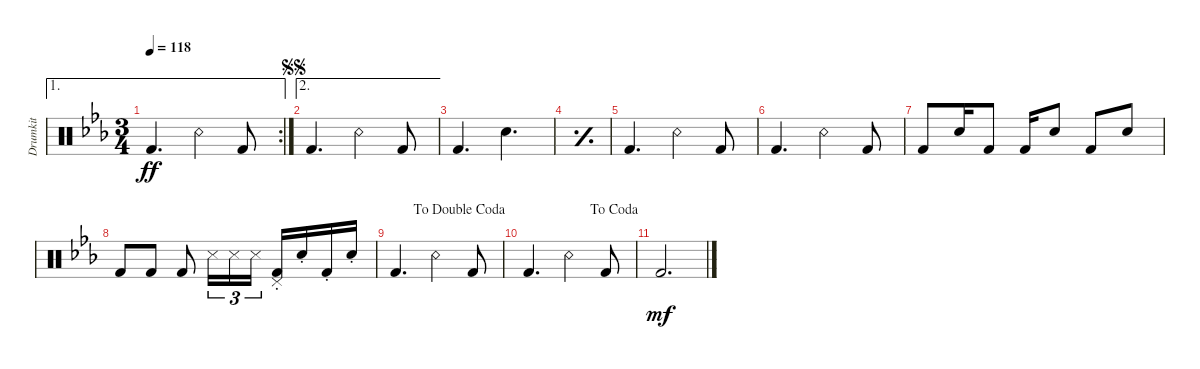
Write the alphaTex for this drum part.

\defaultSystemsLayout 4
\bracketExtendMode groupsimilarinstruments
\otherSystemsTrackNameOrientation horizontal
\track ("Drumkit" "Drumkit") {instrument percussion}
\staff {score}
\articulation defaults
\ae 1
\rc 2
\ts (3 4)
\scale
0.569865
\tempo 118
\accidentals auto
\clef neutral
\ottava regular
\simile none
\ks cminor "Kick (hit) 2"{acc forcenatural}.4{d dy ff beam Up} "Snare (rim shot)"{acc forcenatural}.4{beam Down} "Kick (hit) 2"{acc forcenatural}.8{beam Up}
|
\ae 2
\scale
1.16738
\jump segnosegno "Kick (hit) 2"{acc forcenatural}.4{d beam Up} "Snare (rim shot)"{acc forcenatural}.4{beam Down} "Kick (hit) 2"{acc forcenatural}.8{beam Up}
|
\scale
0.83262 "Kick (hit) 2"{acc forcenatural}.4{d beam Up} "Snare (hit) 2"{acc forcenatural}.4{d beam Down} |
\scale
0.61718
\simile simple
|
\scale
1.38282
\simile none "Kick (hit) 2"{acc forcenatural}.4{d beam Up} "Snare (rim shot)"{acc forcenatural}.4{beam Down} "Kick (hit) 2"{acc forcenatural}.8{beam Up}
|
\scale
1.43899 "Kick (hit) 2"{acc forcenatural}.4{d beam Up} "Snare (rim shot)"{acc forcenatural}.4{beam Down} "Kick (hit) 2"{acc forcenatural}.8{beam Up} |
\scale
0.561011 "Kick (hit) 2"{acc forcenatural}.8{beam Up} "Snare (hit) 2"{acc forcenatural}.16{beam Up} "Kick (hit) 2"{acc forcenatural}.8{beam Up} "Kick (hit) 2"{acc forcenatural}.16{beam Up} "Snare (hit) 2"{acc forcenatural}.8{beam Up} "Kick (hit) 2"{acc forcenatural}.8{beam Up} "Snare (hit) 2"{acc forcenatural}.8{beam Up} |
\scale
0.797584 "Kick (hit) 2"{acc forcenatural}.8{beam Up} "Kick (hit) 2"{acc forcenatural}.8{beam Up} "Kick (hit) 2"{acc forcenatural}.8{beam Up} "Snare (side stick) 3"{acc forcenatural}.16{tu (3 2) beam Down} "Snare (side stick) 3"{acc forcenatural}.16{tu (3 2) beam Down} "Snare (side stick) 3"{acc forcenatural}.16{tu (3 2) beam Down} ("Pedal Hi-Hat (hit)"{st acc forcenatural} "Kick (hit) 2"{st acc forcenatural}).16{beam Up} "Snare (hit) 2"{st acc forcenatural}.16{beam Up} "Kick (hit) 2"{st acc forcenatural}.16{beam Up} "Snare (hit) 2"{st acc forcenatural}.16{beam Up} |
\scale
1.20242
\jump dadoublecoda "Kick (hit) 2"{acc forcenatural}.4{d beam Up} "Snare (rim shot)"{acc forcenatural}.4{beam Down} "Kick (hit) 2"{acc forcenatural}.8{beam Up}
|
\scale
1.34445
\jump dacoda "Kick (hit) 2"{acc forcenatural}.4{d beam Up} "Snare (rim shot)"{acc forcenatural}.4{beam Down} "Kick (hit) 2"{acc forcenatural}.8{beam Up}
|
\scale
0.655545 "Kick (hit) 2"{acc forcenatural}.2{d dy mf beam Up} |
\scale
1.04715 |
\scale
0.952853 |
\scale
1.02685 |
\scale
0.973153 |
\scale
1.0961
